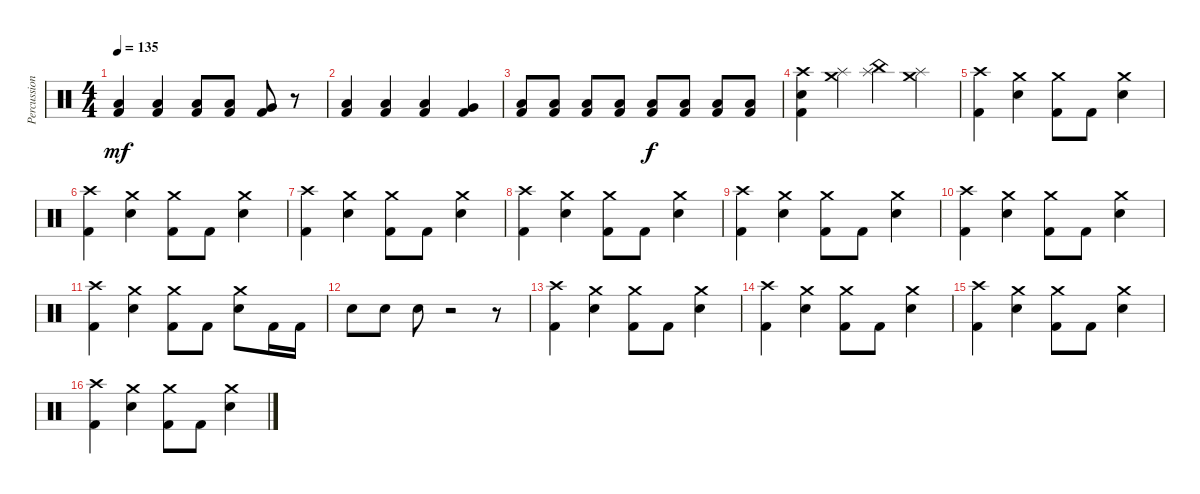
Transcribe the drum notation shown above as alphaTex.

\track ("Percussion" "Percussion") {instrument percussion}
\staff {score}
\articulation defaults
\ts (4 4)
\tempo 135
\clef neutral
\ks c
("Kick (hit) 2" "Low Floor Tom (hit)").4{dy mf} ("Kick (hit) 2" "Low Floor Tom (hit)").4 ("Kick (hit) 2" "Low Floor Tom (hit)").8 ("Kick (hit) 2" "Low Floor Tom (hit)").8 ("Kick (hit) 2" "Very Low Tom (hit)").8 r.8 |
("Kick (hit) 2" "Low Floor Tom (hit)").4 ("Kick (hit) 2" "Low Floor Tom (hit)").4 ("Kick (hit) 2" "Low Floor Tom (hit)").4 ("Kick (hit) 2" "Very Low Tom (hit)").4 |
("Kick (hit) 2" "Low Floor Tom (hit)").8 ("Kick (hit) 2" "Low Floor Tom (hit)").8 ("Kick (hit) 2" "Low Floor Tom (hit)").8 ("Kick (hit) 2" "Low Floor Tom (hit)").8 ("Kick (hit) 2" "Low Floor Tom (hit)").8{dy f} ("Kick (hit) 2" "Low Floor Tom (hit)").8 ("Kick (hit) 2" "Low Floor Tom (hit)").8 ("Kick (hit) 2" "Low Floor Tom (hit)").8 |
("Kick (hit) 2" "Snare (hit) 2" "Crash high (hit)").4 ("Crash medium (hit)" "Splash (hit)").4 ("Splash (hit)" "China (hit)").4 ("Crash medium (hit)" "Splash (hit)").4 |
("Kick (hit) 2" "Crash high (hit)").4 ("Snare (hit) 2" "Crash medium (hit)").4 ("Kick (hit) 2" "Crash medium (hit)").8 "Kick (hit) 2".8 ("Snare (hit) 2" "Crash medium (hit)").4 |
("Kick (hit) 2" "Crash high (hit)").4 ("Snare (hit) 2" "Crash medium (hit)").4 ("Kick (hit) 2" "Crash medium (hit)").8 "Kick (hit) 2".8 ("Snare (hit) 2" "Crash medium (hit)").4 |
("Kick (hit) 2" "Crash high (hit)").4 ("Snare (hit) 2" "Crash medium (hit)").4 ("Kick (hit) 2" "Crash medium (hit)").8 "Kick (hit) 2".8 ("Snare (hit) 2" "Crash medium (hit)").4 |
("Kick (hit) 2" "Crash high (hit)").4 ("Snare (hit) 2" "Crash medium (hit)").4 ("Kick (hit) 2" "Crash medium (hit)").8 "Kick (hit) 2".8 ("Snare (hit) 2" "Crash medium (hit)").4 |
("Kick (hit) 2" "Crash high (hit)").4 ("Snare (hit) 2" "Crash medium (hit)").4 ("Kick (hit) 2" "Crash medium (hit)").8 "Kick (hit) 2".8 ("Snare (hit) 2" "Crash medium (hit)").4 |
("Kick (hit) 2" "Crash high (hit)").4 ("Snare (hit) 2" "Crash medium (hit)").4 ("Kick (hit) 2" "Crash medium (hit)").8 "Kick (hit) 2".8 ("Snare (hit) 2" "Crash medium (hit)").4 |
("Kick (hit) 2" "Crash high (hit)").4 ("Snare (hit) 2" "Crash medium (hit)").4 ("Kick (hit) 2" "Crash medium (hit)").8 "Kick (hit) 2".8 ("Snare (hit) 2" "Crash medium (hit)").8 "Kick (hit) 2".16 "Kick (hit) 2".16 |
"Snare (hit) 2".8 "Snare (hit) 2".8 "Snare (hit) 2".8 r.2 r.8 |
("Kick (hit) 2" "Crash high (hit)").4 ("Snare (hit) 2" "Crash medium (hit)").4 ("Kick (hit) 2" "Crash medium (hit)").8 "Kick (hit) 2".8 ("Snare (hit) 2" "Crash medium (hit)").4 |
("Kick (hit) 2" "Crash high (hit)").4 ("Snare (hit) 2" "Crash medium (hit)").4 ("Kick (hit) 2" "Crash medium (hit)").8 "Kick (hit) 2".8 ("Snare (hit) 2" "Crash medium (hit)").4 |
("Kick (hit) 2" "Crash high (hit)").4 ("Snare (hit) 2" "Crash medium (hit)").4 ("Kick (hit) 2" "Crash medium (hit)").8 "Kick (hit) 2".8 ("Snare (hit) 2" "Crash medium (hit)").4 |
("Kick (hit) 2" "Crash high (hit)").4 ("Snare (hit) 2" "Crash medium (hit)").4 ("Kick (hit) 2" "Crash medium (hit)").8 "Kick (hit) 2".8 ("Snare (hit) 2" "Crash medium (hit)").4
